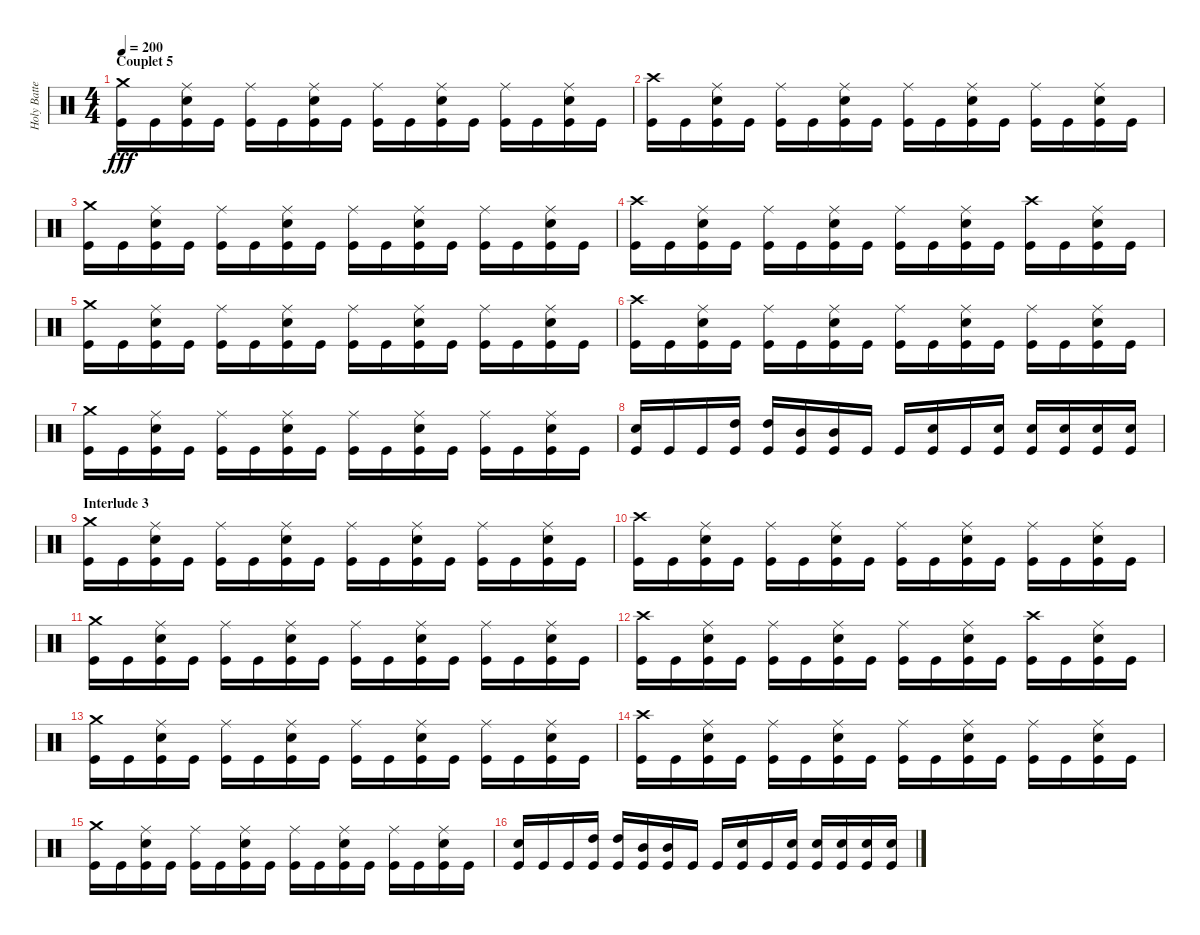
\track ("Holy Batteur" "Holy Batte") {instrument percussion}
\staff {score}
\articulation defaults
\ts (4 4)
\section ("" "Couplet 5")
\tempo 200
\clef neutral
\ks c
("Crash medium (hit)" "Kick (hit)").16{dy fff} "Kick (hit)".16 ("Ride (middle)" "Electric Snare (hit)" "Kick (hit)").16 "Kick (hit)".16 ("Ride (middle)" "Kick (hit)").16 "Kick (hit)".16 ("Ride (middle)" "Electric Snare (hit)" "Kick (hit)").16 "Kick (hit)".16 ("Ride (middle)" "Kick (hit)").16 "Kick (hit)".16 ("Ride (middle)" "Electric Snare (hit)" "Kick (hit)").16 "Kick (hit)".16 ("Ride (middle)" "Kick (hit)").16 "Kick (hit)".16 ("Ride (middle)" "Electric Snare (hit)" "Kick (hit)").16 "Kick (hit)".16 |
("Crash high (hit)" "Kick (hit)").16 "Kick (hit)".16 ("Ride (middle)" "Electric Snare (hit)" "Kick (hit)").16 "Kick (hit)".16 ("Ride (middle)" "Kick (hit)").16 "Kick (hit)".16 ("Ride (middle)" "Electric Snare (hit)" "Kick (hit)").16 "Kick (hit)".16 ("Ride (middle)" "Kick (hit)").16 "Kick (hit)".16 ("Ride (middle)" "Electric Snare (hit)" "Kick (hit)").16 "Kick (hit)".16 ("Ride (middle)" "Kick (hit)").16 "Kick (hit)".16 ("Ride (middle)" "Electric Snare (hit)" "Kick (hit)").16 "Kick (hit)".16 |
("Crash medium (hit)" "Kick (hit)").16 "Kick (hit)".16 ("Ride (middle)" "Electric Snare (hit)" "Kick (hit)").16 "Kick (hit)".16 ("Ride (middle)" "Kick (hit)").16 "Kick (hit)".16 ("Ride (middle)" "Electric Snare (hit)" "Kick (hit)").16 "Kick (hit)".16 ("Ride (middle)" "Kick (hit)").16 "Kick (hit)".16 ("Ride (middle)" "Electric Snare (hit)" "Kick (hit)").16 "Kick (hit)".16 ("Ride (middle)" "Kick (hit)").16 "Kick (hit)".16 ("Ride (middle)" "Electric Snare (hit)" "Kick (hit)").16 "Kick (hit)".16 |
("Crash high (hit)" "Kick (hit)").16 "Kick (hit)".16 ("Ride (middle)" "Electric Snare (hit)" "Kick (hit)").16 "Kick (hit)".16 ("Ride (middle)" "Kick (hit)").16 "Kick (hit)".16 ("Ride (middle)" "Electric Snare (hit)" "Kick (hit)").16 "Kick (hit)".16 ("Ride (middle)" "Kick (hit)").16 "Kick (hit)".16 ("Ride (middle)" "Electric Snare (hit)" "Kick (hit)").16 "Kick (hit)".16 ("Crash high (hit)" "Kick (hit)").16 "Kick (hit)".16 ("Ride (middle)" "Electric Snare (hit)" "Kick (hit)").16 "Kick (hit)".16 |
("Crash medium (hit)" "Kick (hit)").16 "Kick (hit)".16 ("Ride (middle)" "Electric Snare (hit)" "Kick (hit)").16 "Kick (hit)".16 ("Ride (middle)" "Kick (hit)").16 "Kick (hit)".16 ("Ride (middle)" "Electric Snare (hit)" "Kick (hit)").16 "Kick (hit)".16 ("Ride (middle)" "Kick (hit)").16 "Kick (hit)".16 ("Ride (middle)" "Electric Snare (hit)" "Kick (hit)").16 "Kick (hit)".16 ("Ride (middle)" "Kick (hit)").16 "Kick (hit)".16 ("Ride (middle)" "Electric Snare (hit)" "Kick (hit)").16 "Kick (hit)".16 |
("Crash high (hit)" "Kick (hit)").16 "Kick (hit)".16 ("Ride (middle)" "Electric Snare (hit)" "Kick (hit)").16 "Kick (hit)".16 ("Ride (middle)" "Kick (hit)").16 "Kick (hit)".16 ("Ride (middle)" "Electric Snare (hit)" "Kick (hit)").16 "Kick (hit)".16 ("Ride (middle)" "Kick (hit)").16 "Kick (hit)".16 ("Ride (middle)" "Electric Snare (hit)" "Kick (hit)").16 "Kick (hit)".16 ("Ride (middle)" "Kick (hit)").16 "Kick (hit)".16 ("Ride (middle)" "Electric Snare (hit)" "Kick (hit)").16 "Kick (hit)".16 |
("Crash medium (hit)" "Kick (hit)").16 "Kick (hit)".16 ("Ride (middle)" "Electric Snare (hit)" "Kick (hit)").16 "Kick (hit)".16 ("Ride (middle)" "Kick (hit)").16 "Kick (hit)".16 ("Ride (middle)" "Electric Snare (hit)" "Kick (hit)").16 "Kick (hit)".16 ("Ride (middle)" "Kick (hit)").16 "Kick (hit)".16 ("Ride (middle)" "Electric Snare (hit)" "Kick (hit)").16 "Kick (hit)".16 ("Ride (middle)" "Kick (hit)").16 "Kick (hit)".16 ("Ride (middle)" "Electric Snare (hit)" "Kick (hit)").16 "Kick (hit)".16 |
("Electric Snare (hit)" "Kick (hit)").16 "Kick (hit)".16 "Kick (hit)".16 ("High Tom (hit)" "Kick (hit)").16 ("High Tom (hit)" "Kick (hit)").16 ("Mid Tom (hit)" "Kick (hit)").16 ("Mid Tom (hit)" "Kick (hit)").16 "Kick (hit)".16 "Kick (hit)".16 ("Electric Snare (hit)" "Kick (hit)").16 "Kick (hit)".16 ("Electric Snare (hit)" "Kick (hit)").16 ("Electric Snare (hit)" "Kick (hit)").16 ("Electric Snare (hit)" "Kick (hit)").16 ("Electric Snare (hit)" "Kick (hit)").16 ("Electric Snare (hit)" "Kick (hit)").16 |
\section ("" "Interlude 3")
("Crash medium (hit)" "Kick (hit)").16 "Kick (hit)".16 ("Ride (middle)" "Electric Snare (hit)" "Kick (hit)").16 "Kick (hit)".16 ("Ride (middle)" "Kick (hit)").16 "Kick (hit)".16 ("Ride (middle)" "Electric Snare (hit)" "Kick (hit)").16 "Kick (hit)".16 ("Ride (middle)" "Kick (hit)").16 "Kick (hit)".16 ("Ride (middle)" "Electric Snare (hit)" "Kick (hit)").16 "Kick (hit)".16 ("Ride (middle)" "Kick (hit)").16 "Kick (hit)".16 ("Ride (middle)" "Electric Snare (hit)" "Kick (hit)").16 "Kick (hit)".16 |
("Crash high (hit)" "Kick (hit)").16 "Kick (hit)".16 ("Ride (middle)" "Electric Snare (hit)" "Kick (hit)").16 "Kick (hit)".16 ("Ride (middle)" "Kick (hit)").16 "Kick (hit)".16 ("Ride (middle)" "Electric Snare (hit)" "Kick (hit)").16 "Kick (hit)".16 ("Ride (middle)" "Kick (hit)").16 "Kick (hit)".16 ("Ride (middle)" "Electric Snare (hit)" "Kick (hit)").16 "Kick (hit)".16 ("Ride (middle)" "Kick (hit)").16 "Kick (hit)".16 ("Ride (middle)" "Electric Snare (hit)" "Kick (hit)").16 "Kick (hit)".16 |
("Crash medium (hit)" "Kick (hit)").16 "Kick (hit)".16 ("Ride (middle)" "Electric Snare (hit)" "Kick (hit)").16 "Kick (hit)".16 ("Ride (middle)" "Kick (hit)").16 "Kick (hit)".16 ("Ride (middle)" "Electric Snare (hit)" "Kick (hit)").16 "Kick (hit)".16 ("Ride (middle)" "Kick (hit)").16 "Kick (hit)".16 ("Ride (middle)" "Electric Snare (hit)" "Kick (hit)").16 "Kick (hit)".16 ("Ride (middle)" "Kick (hit)").16 "Kick (hit)".16 ("Ride (middle)" "Electric Snare (hit)" "Kick (hit)").16 "Kick (hit)".16 |
("Crash high (hit)" "Kick (hit)").16 "Kick (hit)".16 ("Ride (middle)" "Electric Snare (hit)" "Kick (hit)").16 "Kick (hit)".16 ("Ride (middle)" "Kick (hit)").16 "Kick (hit)".16 ("Ride (middle)" "Electric Snare (hit)" "Kick (hit)").16 "Kick (hit)".16 ("Ride (middle)" "Kick (hit)").16 "Kick (hit)".16 ("Ride (middle)" "Electric Snare (hit)" "Kick (hit)").16 "Kick (hit)".16 ("Crash high (hit)" "Kick (hit)").16 "Kick (hit)".16 ("Ride (middle)" "Electric Snare (hit)" "Kick (hit)").16 "Kick (hit)".16 |
("Crash medium (hit)" "Kick (hit)").16 "Kick (hit)".16 ("Ride (middle)" "Electric Snare (hit)" "Kick (hit)").16 "Kick (hit)".16 ("Ride (middle)" "Kick (hit)").16 "Kick (hit)".16 ("Ride (middle)" "Electric Snare (hit)" "Kick (hit)").16 "Kick (hit)".16 ("Ride (middle)" "Kick (hit)").16 "Kick (hit)".16 ("Ride (middle)" "Electric Snare (hit)" "Kick (hit)").16 "Kick (hit)".16 ("Ride (middle)" "Kick (hit)").16 "Kick (hit)".16 ("Ride (middle)" "Electric Snare (hit)" "Kick (hit)").16 "Kick (hit)".16 |
("Crash high (hit)" "Kick (hit)").16 "Kick (hit)".16 ("Ride (middle)" "Electric Snare (hit)" "Kick (hit)").16 "Kick (hit)".16 ("Ride (middle)" "Kick (hit)").16 "Kick (hit)".16 ("Ride (middle)" "Electric Snare (hit)" "Kick (hit)").16 "Kick (hit)".16 ("Ride (middle)" "Kick (hit)").16 "Kick (hit)".16 ("Ride (middle)" "Electric Snare (hit)" "Kick (hit)").16 "Kick (hit)".16 ("Ride (middle)" "Kick (hit)").16 "Kick (hit)".16 ("Ride (middle)" "Electric Snare (hit)" "Kick (hit)").16 "Kick (hit)".16 |
("Crash medium (hit)" "Kick (hit)").16 "Kick (hit)".16 ("Ride (middle)" "Electric Snare (hit)" "Kick (hit)").16 "Kick (hit)".16 ("Ride (middle)" "Kick (hit)").16 "Kick (hit)".16 ("Ride (middle)" "Electric Snare (hit)" "Kick (hit)").16 "Kick (hit)".16 ("Ride (middle)" "Kick (hit)").16 "Kick (hit)".16 ("Ride (middle)" "Electric Snare (hit)" "Kick (hit)").16 "Kick (hit)".16 ("Ride (middle)" "Kick (hit)").16 "Kick (hit)".16 ("Ride (middle)" "Electric Snare (hit)" "Kick (hit)").16 "Kick (hit)".16 |
("Electric Snare (hit)" "Kick (hit)").16 "Kick (hit)".16 "Kick (hit)".16 ("High Tom (hit)" "Kick (hit)").16 ("High Tom (hit)" "Kick (hit)").16 ("Mid Tom (hit)" "Kick (hit)").16 ("Mid Tom (hit)" "Kick (hit)").16 "Kick (hit)".16 "Kick (hit)".16 ("Electric Snare (hit)" "Kick (hit)").16 "Kick (hit)".16 ("Electric Snare (hit)" "Kick (hit)").16 ("Electric Snare (hit)" "Kick (hit)").16 ("Electric Snare (hit)" "Kick (hit)").16 ("Electric Snare (hit)" "Kick (hit)").16 ("Electric Snare (hit)" "Kick (hit)").16
